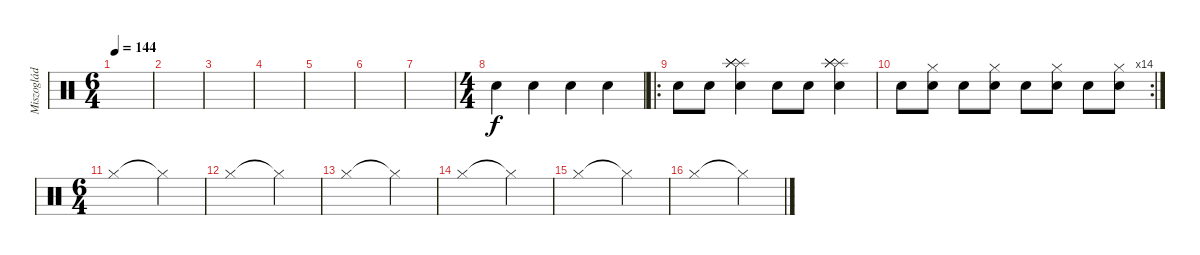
\track ("Miszoglád Henrik - Dob" "Miszoglád ") {instrument percussion}
\staff {score}
\articulation defaults
\ts (6 4)
\tempo 144
\clef neutral
\ks c
|
|
|
|
|
|
|
\ts (4 4)
"Electric Snare (hit)".4 "Electric Snare (hit)".4 "Electric Snare (hit)".4 "Electric Snare (hit)".4 |
\ro "Electric Snare (hit)".8 "Electric Snare (hit)".8
("Splash (hit)" "Splash (hit)" "Splash (hit)" "Electric Snare (hit)").4 "Electric Snare (hit)".8 "Electric Snare (hit)".8 ("Splash (hit)" "Splash (hit)" "Splash (hit)" "Electric Snare (hit)").4 |
\rc 14 "Electric Snare (hit)".8
("Hi-Hat (closed)" "Electric Snare (hit)").8 "Electric Snare (hit)".8 ("Hi-Hat (closed)" "Electric Snare (hit)").8 "Electric Snare (hit)".8 ("Hi-Hat (closed)" "Electric Snare (hit)").8 "Electric Snare (hit)".8 ("Hi-Hat (closed)" "Electric Snare (hit)").8 |
\ts (6 4)
"Hi-Hat (closed)".1 "Hi-Hat (closed)"{t}.2 |
"Hi-Hat (closed)".1 "Hi-Hat (closed)"{t}.2 |
"Hi-Hat (closed)".1 "Hi-Hat (closed)"{t}.2 |
"Hi-Hat (closed)".1 "Hi-Hat (closed)"{t}.2 |
"Hi-Hat (closed)".1 "Hi-Hat (closed)"{t}.2 |
"Hi-Hat (closed)".1 "Hi-Hat (closed)"{t}.2
